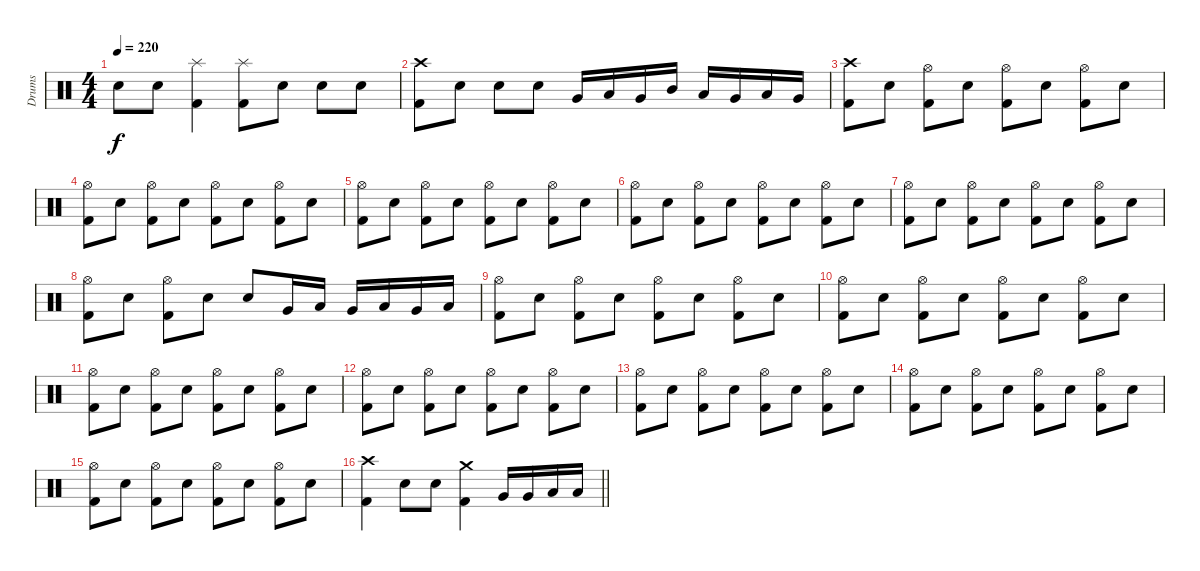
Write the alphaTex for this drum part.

\track ("Drums" "Drums") {instrument percussion}
\staff {score}
\articulation defaults
\ts (4 4)
\tempo 220
\clef neutral
\ks c "Electric Snare (hit)".8{dy f} "Electric Snare (hit)".8
("Splash (hit)" "Kick (hit) 2").4 ("Splash (hit)" "Kick (hit) 2").8 "Electric Snare (hit)".8 "Electric Snare (hit)".8 "Electric Snare (hit)".8 |
("Crash high (hit)" "Kick (hit) 2").8 "Electric Snare (hit)".8 "Electric Snare (hit)".8 "Electric Snare (hit)".8 "Very Low Tom (hit)".16 "Low Tom (hit)".16 "Very Low Tom (hit)".16 "Mid Tom (hit)".16 "Low Tom (hit)".16 "Very Low Tom (hit)".16 "Low Floor Tom (hit)".16 "Very Low Tom (hit)".16 |
("Crash high (hit)" "Kick (hit) 2").8 "Electric Snare (hit)".8 ("Hi-Hat (open)" "Kick (hit) 2").8 "Electric Snare (hit)".8 ("Hi-Hat (open)" "Kick (hit) 2").8 "Electric Snare (hit)".8 ("Hi-Hat (open)" "Kick (hit) 2").8 "Electric Snare (hit)".8 |
("Hi-Hat (open)" "Kick (hit) 2").8 "Electric Snare (hit)".8 ("Hi-Hat (open)" "Kick (hit) 2").8 "Electric Snare (hit)".8 ("Hi-Hat (open)" "Kick (hit) 2").8 "Electric Snare (hit)".8 ("Hi-Hat (open)" "Kick (hit) 2").8 "Electric Snare (hit)".8 |
("Hi-Hat (open)" "Kick (hit) 2").8 "Electric Snare (hit)".8 ("Hi-Hat (open)" "Kick (hit) 2").8 "Electric Snare (hit)".8 ("Hi-Hat (open)" "Kick (hit) 2").8 "Electric Snare (hit)".8 ("Hi-Hat (open)" "Kick (hit) 2").8 "Electric Snare (hit)".8 |
("Hi-Hat (open)" "Kick (hit) 2").8 "Electric Snare (hit)".8 ("Hi-Hat (open)" "Kick (hit) 2").8 "Electric Snare (hit)".8 ("Hi-Hat (open)" "Kick (hit) 2").8 "Electric Snare (hit)".8 ("Hi-Hat (open)" "Kick (hit) 2").8 "Electric Snare (hit)".8 |
("Hi-Hat (open)" "Kick (hit) 2").8 "Electric Snare (hit)".8 ("Hi-Hat (open)" "Kick (hit) 2").8 "Electric Snare (hit)".8 ("Hi-Hat (open)" "Kick (hit) 2").8 "Electric Snare (hit)".8 ("Hi-Hat (open)" "Kick (hit) 2").8 "Electric Snare (hit)".8 |
("Hi-Hat (open)" "Kick (hit) 2").8 "Electric Snare (hit)".8 ("Hi-Hat (open)" "Kick (hit) 2").8 "Electric Snare (hit)".8 "Electric Snare (hit)".8 "Very Low Tom (hit)".16 "Low Floor Tom (hit)".16 "Very Low Tom (hit)".16 "Low Tom (hit)".16 "Very Low Tom (hit)".16 "Low Floor Tom (hit)".16 |
("Hi-Hat (open)" "Kick (hit) 2").8 "Electric Snare (hit)".8 ("Hi-Hat (open)" "Kick (hit) 2").8 "Electric Snare (hit)".8 ("Hi-Hat (open)" "Kick (hit) 2").8 "Electric Snare (hit)".8 ("Hi-Hat (open)" "Kick (hit) 2").8 "Electric Snare (hit)".8 |
("Hi-Hat (open)" "Kick (hit) 2").8 "Electric Snare (hit)".8 ("Hi-Hat (open)" "Kick (hit) 2").8 "Electric Snare (hit)".8 ("Hi-Hat (open)" "Kick (hit) 2").8 "Electric Snare (hit)".8 ("Hi-Hat (open)" "Kick (hit) 2").8 "Electric Snare (hit)".8 |
("Hi-Hat (open)" "Kick (hit) 2").8 "Electric Snare (hit)".8 ("Hi-Hat (open)" "Kick (hit) 2").8 "Electric Snare (hit)".8 ("Hi-Hat (open)" "Kick (hit) 2").8 "Electric Snare (hit)".8 ("Hi-Hat (open)" "Kick (hit) 2").8 "Electric Snare (hit)".8 |
("Hi-Hat (open)" "Kick (hit) 2").8 "Electric Snare (hit)".8 ("Hi-Hat (open)" "Kick (hit) 2").8 "Electric Snare (hit)".8 ("Hi-Hat (open)" "Kick (hit) 2").8 "Electric Snare (hit)".8 ("Hi-Hat (open)" "Kick (hit) 2").8 "Electric Snare (hit)".8 |
("Hi-Hat (open)" "Kick (hit) 2").8 "Electric Snare (hit)".8 ("Hi-Hat (open)" "Kick (hit) 2").8 "Electric Snare (hit)".8 ("Hi-Hat (open)" "Kick (hit) 2").8 "Electric Snare (hit)".8 ("Hi-Hat (open)" "Kick (hit) 2").8 "Electric Snare (hit)".8 |
("Hi-Hat (open)" "Kick (hit) 2").8 "Electric Snare (hit)".8 ("Hi-Hat (open)" "Kick (hit) 2").8 "Electric Snare (hit)".8 ("Hi-Hat (open)" "Kick (hit) 2").8 "Electric Snare (hit)".8 ("Hi-Hat (open)" "Kick (hit) 2").8 "Electric Snare (hit)".8 |
("Hi-Hat (open)" "Kick (hit) 2").8 "Electric Snare (hit)".8 ("Hi-Hat (open)" "Kick (hit) 2").8 "Electric Snare (hit)".8 ("Hi-Hat (open)" "Kick (hit) 2").8 "Electric Snare (hit)".8 ("Hi-Hat (open)" "Kick (hit) 2").8 "Electric Snare (hit)".8 |
\barLineRight lightlight
("Crash high (hit)" "Kick (hit) 2").4 "Electric Snare (hit)".8 "Electric Snare (hit)".8 ("Crash medium (hit)" "Kick (hit) 2").4 "Very Low Tom (hit)".16 "Very Low Tom (hit)".16 "Low Floor Tom (hit)".16 "Low Floor Tom (hit)".16
